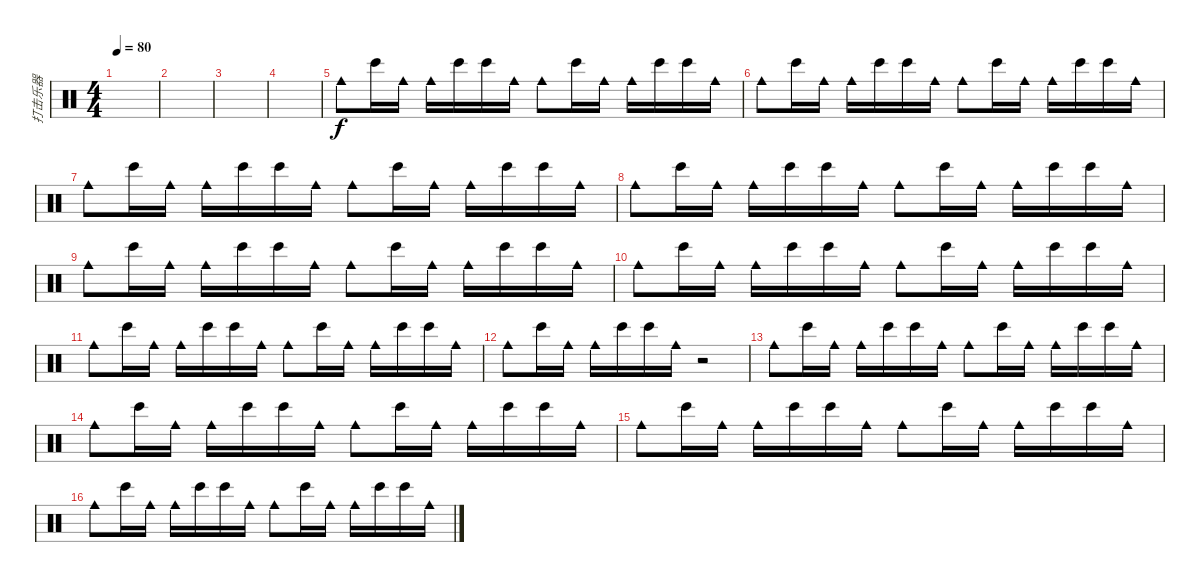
\track ("打击乐器" "打击乐器") {instrument percussion}
\staff {score}
\articulation defaults
\ts (4 4)
\tempo 80
\clef neutral
\ks c
|
|
|
|
"Cowbell medium (hit)".8 "Bongo High (hit)".16 "Cowbell medium (hit)".16 "Cowbell medium (hit)".16 "Bongo High (hit)".16 "Bongo High (hit)".16 "Cowbell medium (hit)".16 "Cowbell medium (hit)".8 "Bongo High (hit)".16 "Cowbell medium (hit)".16 "Cowbell medium (hit)".16 "Bongo High (hit)".16 "Bongo High (hit)".16 "Cowbell medium (hit)".16 |
"Cowbell medium (hit)".8 "Bongo High (hit)".16 "Cowbell medium (hit)".16 "Cowbell medium (hit)".16 "Bongo High (hit)".16 "Bongo High (hit)".16 "Cowbell medium (hit)".16 "Cowbell medium (hit)".8 "Bongo High (hit)".16 "Cowbell medium (hit)".16 "Cowbell medium (hit)".16 "Bongo High (hit)".16 "Bongo High (hit)".16 "Cowbell medium (hit)".16 |
"Cowbell medium (hit)".8 "Bongo High (hit)".16 "Cowbell medium (hit)".16 "Cowbell medium (hit)".16 "Bongo High (hit)".16 "Bongo High (hit)".16 "Cowbell medium (hit)".16 "Cowbell medium (hit)".8 "Bongo High (hit)".16 "Cowbell medium (hit)".16 "Cowbell medium (hit)".16 "Bongo High (hit)".16 "Bongo High (hit)".16 "Cowbell medium (hit)".16 |
"Cowbell medium (hit)".8 "Bongo High (hit)".16 "Cowbell medium (hit)".16 "Cowbell medium (hit)".16 "Bongo High (hit)".16 "Bongo High (hit)".16 "Cowbell medium (hit)".16 "Cowbell medium (hit)".8 "Bongo High (hit)".16 "Cowbell medium (hit)".16 "Cowbell medium (hit)".16 "Bongo High (hit)".16 "Bongo High (hit)".16 "Cowbell medium (hit)".16 |
"Cowbell medium (hit)".8 "Bongo High (hit)".16 "Cowbell medium (hit)".16 "Cowbell medium (hit)".16 "Bongo High (hit)".16 "Bongo High (hit)".16 "Cowbell medium (hit)".16 "Cowbell medium (hit)".8 "Bongo High (hit)".16 "Cowbell medium (hit)".16 "Cowbell medium (hit)".16 "Bongo High (hit)".16 "Bongo High (hit)".16 "Cowbell medium (hit)".16 |
"Cowbell medium (hit)".8 "Bongo High (hit)".16 "Cowbell medium (hit)".16 "Cowbell medium (hit)".16 "Bongo High (hit)".16 "Bongo High (hit)".16 "Cowbell medium (hit)".16 "Cowbell medium (hit)".8 "Bongo High (hit)".16 "Cowbell medium (hit)".16 "Cowbell medium (hit)".16 "Bongo High (hit)".16 "Bongo High (hit)".16 "Cowbell medium (hit)".16 |
"Cowbell medium (hit)".8 "Bongo High (hit)".16 "Cowbell medium (hit)".16 "Cowbell medium (hit)".16 "Bongo High (hit)".16 "Bongo High (hit)".16 "Cowbell medium (hit)".16 "Cowbell medium (hit)".8 "Bongo High (hit)".16 "Cowbell medium (hit)".16 "Cowbell medium (hit)".16 "Bongo High (hit)".16 "Bongo High (hit)".16 "Cowbell medium (hit)".16 |
"Cowbell medium (hit)".8 "Bongo High (hit)".16 "Cowbell medium (hit)".16 "Cowbell medium (hit)".16 "Bongo High (hit)".16 "Bongo High (hit)".16 "Cowbell medium (hit)".16 r.2 |
"Cowbell medium (hit)".8 "Bongo High (hit)".16 "Cowbell medium (hit)".16 "Cowbell medium (hit)".16 "Bongo High (hit)".16 "Bongo High (hit)".16 "Cowbell medium (hit)".16 "Cowbell medium (hit)".8 "Bongo High (hit)".16 "Cowbell medium (hit)".16 "Cowbell medium (hit)".16 "Bongo High (hit)".16 "Bongo High (hit)".16 "Cowbell medium (hit)".16 |
"Cowbell medium (hit)".8 "Bongo High (hit)".16 "Cowbell medium (hit)".16 "Cowbell medium (hit)".16 "Bongo High (hit)".16 "Bongo High (hit)".16 "Cowbell medium (hit)".16 "Cowbell medium (hit)".8 "Bongo High (hit)".16 "Cowbell medium (hit)".16 "Cowbell medium (hit)".16 "Bongo High (hit)".16 "Bongo High (hit)".16 "Cowbell medium (hit)".16 |
"Cowbell medium (hit)".8 "Bongo High (hit)".16 "Cowbell medium (hit)".16 "Cowbell medium (hit)".16 "Bongo High (hit)".16 "Bongo High (hit)".16 "Cowbell medium (hit)".16 "Cowbell medium (hit)".8 "Bongo High (hit)".16 "Cowbell medium (hit)".16 "Cowbell medium (hit)".16 "Bongo High (hit)".16 "Bongo High (hit)".16 "Cowbell medium (hit)".16 |
"Cowbell medium (hit)".8 "Bongo High (hit)".16 "Cowbell medium (hit)".16 "Cowbell medium (hit)".16 "Bongo High (hit)".16 "Bongo High (hit)".16 "Cowbell medium (hit)".16 "Cowbell medium (hit)".8 "Bongo High (hit)".16 "Cowbell medium (hit)".16 "Cowbell medium (hit)".16 "Bongo High (hit)".16 "Bongo High (hit)".16 "Cowbell medium (hit)".16
